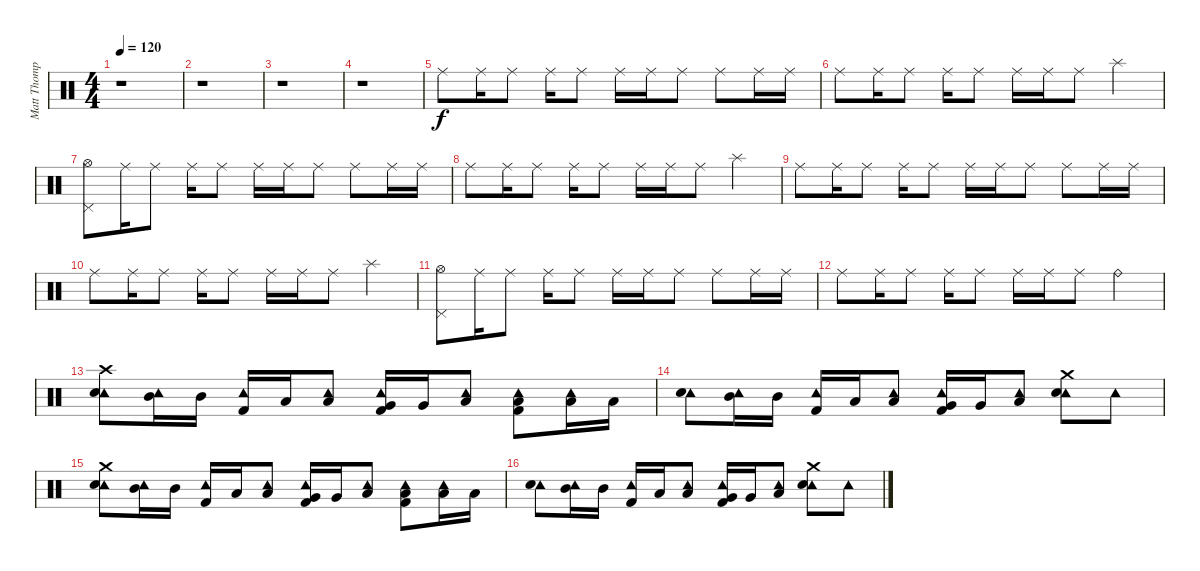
\track ("Matt Thompson" "Matt Thomp") {instrument percussion}
\staff {score}
\articulation defaults
\ts (4 4)
\tempo 120
\clef neutral
\ks c
r.1{dy f} |
r.1 |
r.1 |
r.1 |
"Ride (middle)".8 "Ride (middle)".16 "Ride (middle)".8 "Ride (middle)".16 "Ride (middle)".8 "Ride (middle)".16 "Ride (middle)".16 "Ride (middle)".8 "Ride (middle)".8 "Ride (middle)".16 "Ride (middle)".16 |
"Ride (middle)".8 "Ride (middle)".16 "Ride (middle)".8 "Ride (middle)".16 "Ride (middle)".8 "Ride (middle)".16 "Ride (middle)".16 "Ride (middle)".8 "Splash (hit)".4 |
("Pedal Hi-Hat (hit)" "Hi-Hat (open)").8 "Ride (middle)".16 "Ride (middle)".8 "Ride (middle)".16 "Ride (middle)".8 "Ride (middle)".16 "Ride (middle)".16 "Ride (middle)".8 "Ride (middle)".8 "Ride (middle)".16 "Ride (middle)".16 |
"Ride (middle)".8 "Ride (middle)".16 "Ride (middle)".8 "Ride (middle)".16 "Ride (middle)".8 "Ride (middle)".16 "Ride (middle)".16 "Ride (middle)".8 "Splash (hit)".4 |
"Ride (middle)".8 "Ride (middle)".16 "Ride (middle)".8 "Ride (middle)".16 "Ride (middle)".8 "Ride (middle)".16 "Ride (middle)".16 "Ride (middle)".8 "Ride (middle)".8 "Ride (middle)".16 "Ride (middle)".16 |
"Ride (middle)".8 "Ride (middle)".16 "Ride (middle)".8 "Ride (middle)".16 "Ride (middle)".8 "Ride (middle)".16 "Ride (middle)".16 "Ride (middle)".8 "Splash (hit)".4 |
("Pedal Hi-Hat (hit)" "Hi-Hat (open)").8 "Ride (middle)".16 "Ride (middle)".8 "Ride (middle)".16 "Ride (middle)".8 "Ride (middle)".16 "Ride (middle)".16 "Ride (middle)".8 "Ride (middle)".8 "Ride (middle)".16 "Ride (middle)".16 |
"Ride (middle)".8 "Ride (middle)".16 "Ride (middle)".8 "Ride (middle)".16 "Ride (middle)".8 "Ride (middle)".16 "Ride (middle)".16 "Ride (middle)".8 "Ride (bell)".4 |
("Crash high (hit)" "Tambourine (hit)" "Snare (hit) 2").8 ("Mid Tom (hit)" "Tambourine (hit)").16 "Mid Tom (hit)".16 ("Tambourine (hit)" "Kick (hit) 2").16 "Low Tom (hit)".16 ("Low Tom (hit)" "Tambourine (hit)").8 ("Very Low Tom (hit)" "Tambourine (hit)" "Kick (hit) 2").16 "Very Low Tom (hit)".16 ("Low Floor Tom (hit)" "Tambourine (hit)").8 ("Low Floor Tom (hit)" "Tambourine (hit)" "Kick (hit) 2").8 ("Low Floor Tom (hit)" "Tambourine (hit)").16 "Low Floor Tom (hit)".16 |
("Tambourine (hit)" "Snare (hit) 2").8 ("Mid Tom (hit)" "Tambourine (hit)").16 "Mid Tom (hit)".16 ("Tambourine (hit)" "Kick (hit) 2").16 "Low Tom (hit)".16 ("Low Tom (hit)" "Tambourine (hit)").8 ("Very Low Tom (hit)" "Tambourine (hit)" "Kick (hit) 2").16 "Very Low Tom (hit)".16 ("Low Floor Tom (hit)" "Tambourine (hit)").8 ("Crash medium (hit)" "Tambourine (hit)" "Snare (hit) 2").8 "Tambourine (hit)".8 |
("Crash medium (hit)" "Tambourine (hit)" "Snare (hit) 2").8 ("Mid Tom (hit)" "Tambourine (hit)").16 "Mid Tom (hit)".16 ("Tambourine (hit)" "Kick (hit) 2").16 "Low Tom (hit)".16 ("Low Tom (hit)" "Tambourine (hit)").8 ("Very Low Tom (hit)" "Tambourine (hit)" "Kick (hit) 2").16 "Very Low Tom (hit)".16 ("Low Floor Tom (hit)" "Tambourine (hit)").8 ("Low Floor Tom (hit)" "Tambourine (hit)" "Kick (hit) 2").8 ("Low Floor Tom (hit)" "Tambourine (hit)").16 "Low Floor Tom (hit)".16 |
("Tambourine (hit)" "Snare (hit) 2").8 ("Mid Tom (hit)" "Tambourine (hit)").16 "Mid Tom (hit)".16 ("Tambourine (hit)" "Kick (hit) 2").16 "Low Tom (hit)".16 ("Low Tom (hit)" "Tambourine (hit)").8 ("Very Low Tom (hit)" "Tambourine (hit)" "Kick (hit) 2").16 "Very Low Tom (hit)".16 ("Low Floor Tom (hit)" "Tambourine (hit)").8 ("Crash medium (hit)" "Tambourine (hit)" "Snare (hit) 2").8 "Tambourine (hit)".8
